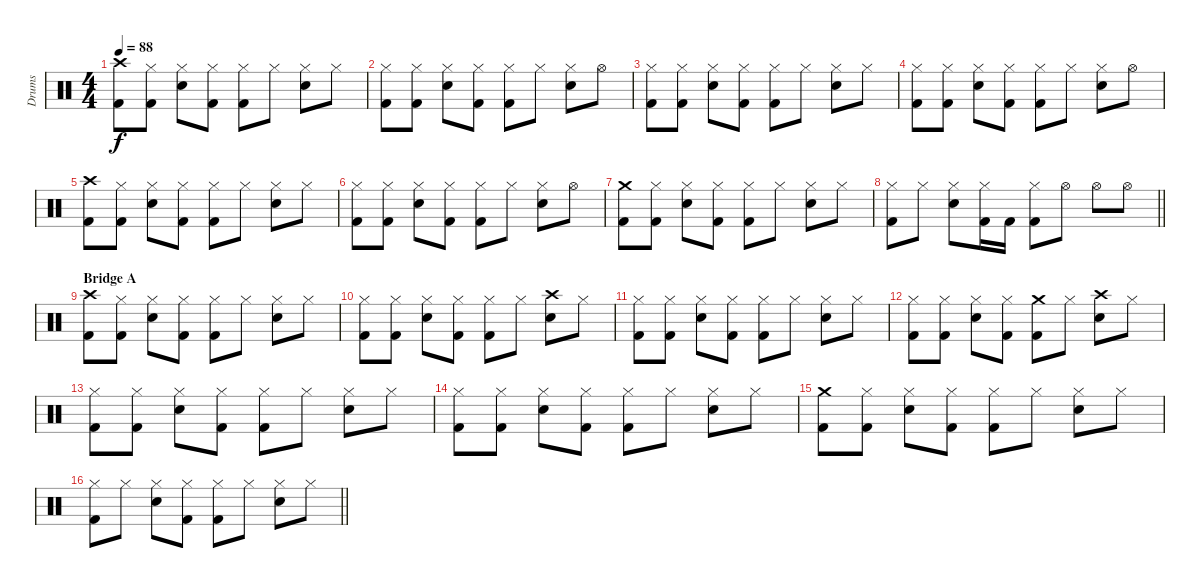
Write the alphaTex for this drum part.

\track ("Drums" "Drums") {instrument percussion}
\staff {score}
\articulation defaults
\ts (4 4)
\tempo 88
\clef neutral
\ks c
("Crash high (hit)" "Kick (hit) 2").8{dy f} ("Hi-Hat (closed)" "Kick (hit) 2").8 ("Hi-Hat (closed)" "Snare (hit) 2").8 ("Hi-Hat (closed)" "Kick (hit) 2").8 ("Hi-Hat (closed)" "Kick (hit) 2").8 "Hi-Hat (closed)".8 ("Hi-Hat (closed)" "Snare (hit) 2").8 "Hi-Hat (closed)".8 |
("Hi-Hat (closed)" "Kick (hit) 2").8 ("Hi-Hat (closed)" "Kick (hit) 2").8 ("Hi-Hat (closed)" "Snare (hit) 2").8 ("Hi-Hat (closed)" "Kick (hit) 2").8 ("Hi-Hat (closed)" "Kick (hit) 2").8 "Hi-Hat (closed)".8 ("Hi-Hat (closed)" "Snare (hit) 2").8 "Hi-Hat (open)".8 |
("Hi-Hat (closed)" "Kick (hit) 2").8 ("Hi-Hat (closed)" "Kick (hit) 2").8 ("Hi-Hat (closed)" "Snare (hit) 2").8 ("Hi-Hat (closed)" "Kick (hit) 2").8 ("Hi-Hat (closed)" "Kick (hit) 2").8 "Hi-Hat (closed)".8 ("Hi-Hat (closed)" "Snare (hit) 2").8 "Hi-Hat (closed)".8 |
("Hi-Hat (closed)" "Kick (hit) 2").8 ("Hi-Hat (closed)" "Kick (hit) 2").8 ("Hi-Hat (closed)" "Snare (hit) 2").8 ("Hi-Hat (closed)" "Kick (hit) 2").8 ("Hi-Hat (closed)" "Kick (hit) 2").8 "Hi-Hat (closed)".8 ("Hi-Hat (closed)" "Snare (hit) 2").8 "Hi-Hat (open)".8 |
("Crash high (hit)" "Kick (hit) 2").8 ("Hi-Hat (closed)" "Kick (hit) 2").8 ("Hi-Hat (closed)" "Snare (hit) 2").8 ("Hi-Hat (closed)" "Kick (hit) 2").8 ("Hi-Hat (closed)" "Kick (hit) 2").8 "Hi-Hat (closed)".8 ("Hi-Hat (closed)" "Snare (hit) 2").8 "Hi-Hat (closed)".8 |
("Hi-Hat (closed)" "Kick (hit) 2").8 ("Hi-Hat (closed)" "Kick (hit) 2").8 ("Hi-Hat (closed)" "Snare (hit) 2").8 ("Hi-Hat (closed)" "Kick (hit) 2").8 ("Hi-Hat (closed)" "Kick (hit) 2").8 "Hi-Hat (closed)".8 ("Hi-Hat (closed)" "Snare (hit) 2").8 "Hi-Hat (open)".8 |
("Crash medium (hit)" "Kick (hit) 2").8 ("Hi-Hat (closed)" "Kick (hit) 2").8 ("Hi-Hat (closed)" "Snare (hit) 2").8 ("Hi-Hat (closed)" "Kick (hit) 2").8 ("Hi-Hat (closed)" "Kick (hit) 2").8 "Hi-Hat (closed)".8 ("Hi-Hat (closed)" "Snare (hit) 2").8 "Hi-Hat (closed)".8 |
\barLineRight lightlight
("Hi-Hat (closed)" "Kick (hit) 2").8 "Hi-Hat (closed)".8 ("Hi-Hat (closed)" "Snare (hit) 2").8 ("Hi-Hat (closed)" "Kick (hit) 2").16 "Kick (hit) 2".16 ("Hi-Hat (closed)" "Kick (hit) 2").8 "Hi-Hat (open)".8 "Hi-Hat (open)".8 "Hi-Hat (open)".8 |
\section ("" "Bridge A")
("Crash high (hit)" "Kick (hit) 2").8 ("Hi-Hat (closed)" "Kick (hit) 2").8 ("Hi-Hat (closed)" "Snare (hit) 2").8 ("Hi-Hat (closed)" "Kick (hit) 2").8 ("Hi-Hat (closed)" "Kick (hit) 2").8 "Hi-Hat (closed)".8 ("Hi-Hat (closed)" "Snare (hit) 2").8 "Hi-Hat (closed)".8 |
("Hi-Hat (closed)" "Kick (hit) 2").8 ("Hi-Hat (closed)" "Kick (hit) 2").8 ("Hi-Hat (closed)" "Snare (hit) 2").8 ("Hi-Hat (closed)" "Kick (hit) 2").8 ("Hi-Hat (closed)" "Kick (hit) 2").8 "Hi-Hat (closed)".8 ("Crash high (hit)" "Snare (hit) 2").8 "Hi-Hat (closed)".8 |
("Hi-Hat (closed)" "Kick (hit) 2").8 ("Hi-Hat (closed)" "Kick (hit) 2").8 ("Hi-Hat (closed)" "Snare (hit) 2").8 ("Hi-Hat (closed)" "Kick (hit) 2").8 ("Hi-Hat (closed)" "Kick (hit) 2").8 "Hi-Hat (closed)".8 ("Hi-Hat (closed)" "Snare (hit) 2").8 "Hi-Hat (closed)".8 |
("Hi-Hat (closed)" "Kick (hit) 2").8 ("Hi-Hat (closed)" "Kick (hit) 2").8 ("Hi-Hat (closed)" "Snare (hit) 2").8 ("Hi-Hat (closed)" "Kick (hit) 2").8 ("Crash medium (hit)" "Kick (hit) 2").8 "Hi-Hat (closed)".8 ("Crash high (hit)" "Snare (hit) 2").8 "Hi-Hat (closed)".8 |
("Hi-Hat (closed)" "Kick (hit) 2").8 ("Hi-Hat (closed)" "Kick (hit) 2").8 ("Hi-Hat (closed)" "Snare (hit) 2").8 ("Hi-Hat (closed)" "Kick (hit) 2").8 ("Hi-Hat (closed)" "Kick (hit) 2").8 "Hi-Hat (closed)".8 ("Hi-Hat (closed)" "Snare (hit) 2").8 "Hi-Hat (closed)".8 |
("Hi-Hat (closed)" "Kick (hit) 2").8 ("Hi-Hat (closed)" "Kick (hit) 2").8 ("Hi-Hat (closed)" "Snare (hit) 2").8 ("Hi-Hat (closed)" "Kick (hit) 2").8 ("Hi-Hat (closed)" "Kick (hit) 2").8 "Hi-Hat (closed)".8 ("Hi-Hat (closed)" "Snare (hit) 2").8 "Hi-Hat (closed)".8 |
("Crash medium (hit)" "Kick (hit) 2").8 ("Hi-Hat (closed)" "Kick (hit) 2").8 ("Hi-Hat (closed)" "Snare (hit) 2").8 ("Hi-Hat (closed)" "Kick (hit) 2").8 ("Hi-Hat (closed)" "Kick (hit) 2").8 "Hi-Hat (closed)".8 ("Hi-Hat (closed)" "Snare (hit) 2").8 "Hi-Hat (closed)".8 |
\barLineRight lightlight
("Hi-Hat (closed)" "Kick (hit) 2").8 "Hi-Hat (closed)".8 ("Hi-Hat (closed)" "Snare (hit) 2").8 ("Hi-Hat (closed)" "Kick (hit) 2").8 ("Hi-Hat (closed)" "Kick (hit) 2").8 "Hi-Hat (closed)".8 ("Hi-Hat (closed)" "Snare (hit) 2").8 "Hi-Hat (closed)".8
